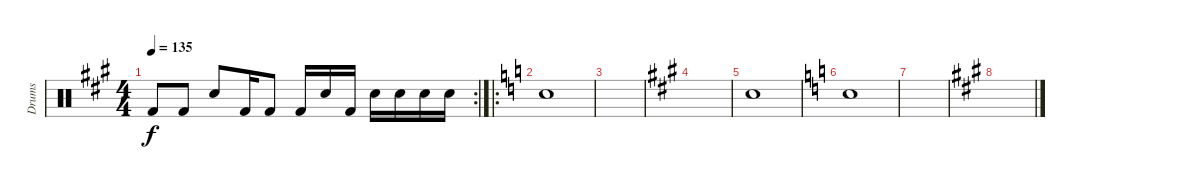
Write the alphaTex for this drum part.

\track ("Drums" "Drums") {instrument percussion}
\staff {score}
\articulation defaults
\rc 2
\ts (4 4)
\tempo 135
\clef neutral
\ks a "Kick (hit) 2".8{dy f} "Kick (hit) 2".8 "Snare (hit) 2".8 "Kick (hit) 2".16 "Kick (hit) 2".8 "Kick (hit) 2".16 "Snare (hit) 2".16 "Kick (hit) 2".16 "Snare (hit) 2".16 "Snare (hit) 2".16 "Snare (hit) 2".16 "Snare (hit) 2".16
|
\ro
\ks c "Snare (hit) 2".1
|
|
\ks a
|
"Snare (hit) 2".1 |
\ks c "Snare (hit) 2".1
|
|
\ks a
